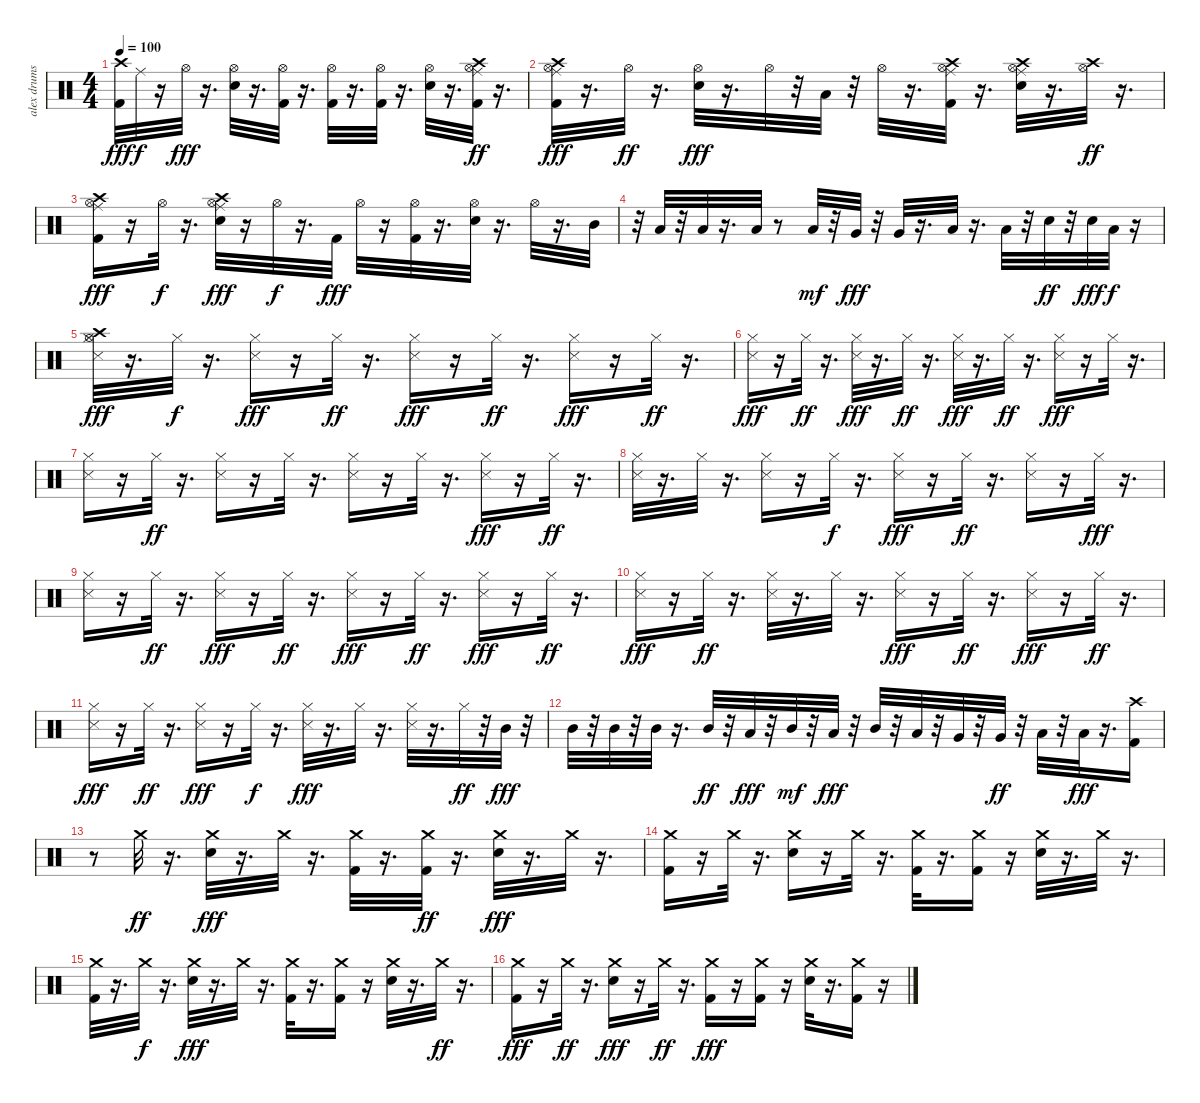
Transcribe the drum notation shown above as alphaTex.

\track ("alex drums" "alex drums") {instrument percussion}
\staff {score}
\articulation defaults
\ts (4 4)
\tempo 100
\clef neutral
\ks c
("Kick (hit) 2" "Crash high (hit)").32{dy fff} "Ride (middle)".32{dy f} r.16 "Hi-Hat (open)".32{dy fff} r.16{d} ("Electric Snare (hit)" "Hi-Hat (open)").32 r.16{d} ("Hi-Hat (open)" "Kick (hit) 2").32 r.16{d} ("Kick (hit) 2" "Hi-Hat (open)").32 r.16{d} ("Hi-Hat (open)" "Kick (hit) 2").32 r.16{d} ("Electric Snare (hit)" "Hi-Hat (open)").32 r.16{d} ("Kick (hit) 2" "Crash high (hit)" "Hi-Hat (open)" "Ride (middle)").32{dy ff} r.16{d} |
("Kick (hit) 2" "Hi-Hat (open)" "Crash high (hit)" "Ride (middle)").32{dy fff} r.16{d} "Hi-Hat (open)".32{dy ff} r.16{d} ("Electric Snare (hit)" "Hi-Hat (open)").32{dy fff} r.16{d} "Hi-Hat (open)".32 r.32 "Low Floor Tom (hit)".32 r.32 "Hi-Hat (open)".32 r.16{d} ("Hi-Hat (open)" "Crash high (hit)" "Ride (middle)" "Kick (hit) 2").32 r.16{d} ("Electric Snare (hit)" "Hi-Hat (open)" "Crash high (hit)" "Ride (middle)").32 r.16{d} ("Crash high (hit)" "Hi-Hat (open)").32{dy ff} r.16{d} |
("Kick (hit) 2" "Hi-Hat (open)" "Crash high (hit)" "Ride (middle)").16{dy fff} r.16 "Hi-Hat (open)".32{dy f} r.16{d} ("Electric Snare (hit)" "Hi-Hat (open)" "Crash high (hit)" "Ride (middle)").32{dy fff} r.16 "Hi-Hat (open)".32{dy f} r.16{d} "Kick (hit) 2".32{dy fff} "Hi-Hat (open)".32 r.16 ("Hi-Hat (open)" "Kick (hit) 2").32 r.16{d} ("Electric Snare (hit)" "Hi-Hat (open)").32 r.16{d} "Hi-Hat (open)".32 r.16{d} "Mid Tom (hit)".32 |
r.32 "Low Tom (hit)".32 r.32 "Low Tom (hit)".32 r.16{d} "Low Tom (hit)".32 r.8 "Low Tom (hit)".32{dy mf} r.32 "Very Low Tom (hit)".32{dy fff} r.32 "Very Low Tom (hit)".32 r.16{d} "Low Floor Tom (hit)".32 r.16{d} "Low Floor Tom (hit)".32 r.32 "Electric Snare (hit)".32{dy ff} r.32 "Electric Snare (hit)".32{dy fff} "Low Floor Tom (hit)".32{dy f} r.16 |
("Hi-Hat (open)" "Hi-Hat (closed)" "Crash high (hit)" "Snare (side stick) 3").32{dy fff} r.16{d} "Hi-Hat (closed)".32{dy f} r.16{d} ("Hi-Hat (closed)" "Snare (side stick) 3").16{dy fff} r.16 "Hi-Hat (closed)".32{dy ff} r.16{d} ("Hi-Hat (closed)" "Snare (side stick) 3").16{dy fff} r.16 "Hi-Hat (closed)".32{dy ff} r.16{d} ("Hi-Hat (closed)" "Snare (side stick) 3").16{dy fff} r.16 "Hi-Hat (closed)".32{dy ff} r.16{d} |
("Hi-Hat (closed)" "Snare (side stick) 3").16{dy fff} r.16 "Hi-Hat (closed)".32{dy ff} r.16{d} ("Hi-Hat (closed)" "Snare (side stick) 3").32{dy fff} r.16{d} "Hi-Hat (closed)".32{dy ff} r.16{d} ("Hi-Hat (closed)" "Snare (side stick) 3").32{dy fff} r.16{d} "Hi-Hat (closed)".32{dy ff} r.16{d} ("Hi-Hat (closed)" "Snare (side stick) 3").16{dy fff} r.16 "Hi-Hat (closed)".32 r.16{d} |
("Hi-Hat (closed)" "Snare (side stick) 3").16 r.16 "Hi-Hat (closed)".32{dy ff} r.16{d} ("Hi-Hat (closed)" "Snare (side stick) 3").16 r.16 "Hi-Hat (closed)".32 r.16{d} ("Hi-Hat (closed)" "Snare (side stick) 3").16 r.16 "Hi-Hat (closed)".32 r.16{d} ("Hi-Hat (closed)" "Snare (side stick) 3").16{dy fff} r.16 "Hi-Hat (closed)".32{dy ff} r.16{d} |
("Snare (side stick) 3" "Hi-Hat (closed)").32 r.16{d} "Hi-Hat (closed)".32 r.16{d} ("Hi-Hat (closed)" "Snare (side stick) 3").16 r.16 "Hi-Hat (closed)".32{dy f} r.16{d} ("Hi-Hat (closed)" "Snare (side stick) 3").16{dy fff} r.16 "Hi-Hat (closed)".32{dy ff} r.16{d} ("Hi-Hat (closed)" "Snare (side stick) 3").16 r.16 "Hi-Hat (closed)".32{dy fff} r.16{d} |
("Hi-Hat (closed)" "Snare (side stick) 3").16 r.16 "Hi-Hat (closed)".32{dy ff} r.16{d} ("Hi-Hat (closed)" "Snare (side stick) 3").16{dy fff} r.16 "Hi-Hat (closed)".32{dy ff} r.16{d} ("Hi-Hat (closed)" "Snare (side stick) 3").16{dy fff} r.16 "Hi-Hat (closed)".32{dy ff} r.16{d} ("Hi-Hat (closed)" "Snare (side stick) 3").16{dy fff} r.16 "Hi-Hat (closed)".32{dy ff} r.16{d} |
("Hi-Hat (closed)" "Snare (side stick) 3").16{dy fff} r.16 "Hi-Hat (closed)".32{dy ff} r.16{d} ("Snare (side stick) 3" "Hi-Hat (closed)").32 r.16{d} "Hi-Hat (closed)".32 r.16{d} ("Hi-Hat (closed)" "Snare (side stick) 3").16{dy fff} r.16 "Hi-Hat (closed)".32{dy ff} r.16{d} ("Hi-Hat (closed)" "Snare (side stick) 3").16{dy fff} r.16 "Hi-Hat (closed)".32{dy ff} r.16{d} |
("Hi-Hat (closed)" "Snare (side stick) 3").16{dy fff} r.16 "Hi-Hat (closed)".32{dy ff} r.16{d} ("Hi-Hat (closed)" "Snare (side stick) 3").16{dy fff} r.16 "Hi-Hat (closed)".32{dy f} r.16{d} ("Hi-Hat (closed)" "Snare (side stick) 3").32{dy fff} r.16{d} "Hi-Hat (closed)".32 r.16{d} ("Hi-Hat (closed)" "Snare (side stick) 3").32 r.16{d} "Hi-Hat (closed)".32{dy ff} r.32 "Mid Tom (hit)".32{dy fff} r.32 |
"Mid Tom (hit)".32 r.32 "Mid Tom (hit)".32 r.32 "Mid Tom (hit)".32 r.16{d} "Mid Tom (hit)".32{dy ff} r.32 "Low Tom (hit)".32{dy fff} r.32 "Mid Tom (hit)".32{dy mf} r.32 "Low Tom (hit)".32{dy fff} r.32 "Mid Tom (hit)".32 r.32 "Low Tom (hit)".32 r.32 "Very Low Tom (hit)".32 r.32 "Very Low Tom (hit)".32{dy ff} r.32 "Low Floor Tom (hit)".32 r.32 "Low Floor Tom (hit)".32{dy fff} r.16{d} ("Crash high (hit)" "Kick (hit) 2").16 |
r.8 "Crash medium (hit)".32{dy ff} r.16{d} ("Crash medium (hit)" "Electric Snare (hit)").32{dy fff} r.16{d} "Crash medium (hit)".32 r.16{d} ("Crash medium (hit)" "Kick (hit) 2").32 r.16{d} ("Crash medium (hit)" "Kick (hit) 2").32{dy ff} r.16{d} ("Crash medium (hit)" "Electric Snare (hit)").32{dy fff} r.16{d} "Crash medium (hit)".32 r.16{d} |
("Crash medium (hit)" "Kick (hit) 2").16 r.16 "Crash medium (hit)".32 r.16{d} ("Electric Snare (hit)" "Crash medium (hit)").16 r.16 "Crash medium (hit)".32 r.16{d} ("Crash medium (hit)" "Kick (hit) 2").32 r.16{d} ("Crash medium (hit)" "Kick (hit) 2").16 r.16 ("Crash medium (hit)" "Electric Snare (hit)").32 r.16{d} "Crash medium (hit)".32 r.16{d} |
("Kick (hit) 2" "Crash medium (hit)").32 r.16{d} "Crash medium (hit)".32{dy f} r.16{d} ("Crash medium (hit)" "Electric Snare (hit)").32{dy fff} r.16{d} "Crash medium (hit)".32 r.16{d} ("Crash medium (hit)" "Kick (hit) 2").32 r.16{d} ("Crash medium (hit)" "Kick (hit) 2").16 r.16 ("Crash medium (hit)" "Electric Snare (hit)").32 r.16{d} "Crash medium (hit)".32{dy ff} r.16{d} |
("Crash medium (hit)" "Kick (hit) 2").16{dy fff} r.16 "Crash medium (hit)".32{dy ff} r.16{d} ("Crash medium (hit)" "Electric Snare (hit)").16{dy fff} r.16 "Crash medium (hit)".32{dy ff} r.16{d} ("Kick (hit) 2" "Crash medium (hit)").16{dy fff} r.16 ("Kick (hit) 2" "Crash medium (hit)").16 r.16 ("Crash medium (hit)" "Electric Snare (hit)").32 r.16{d} ("Crash medium (hit)" "Kick (hit) 2").16 r.16
